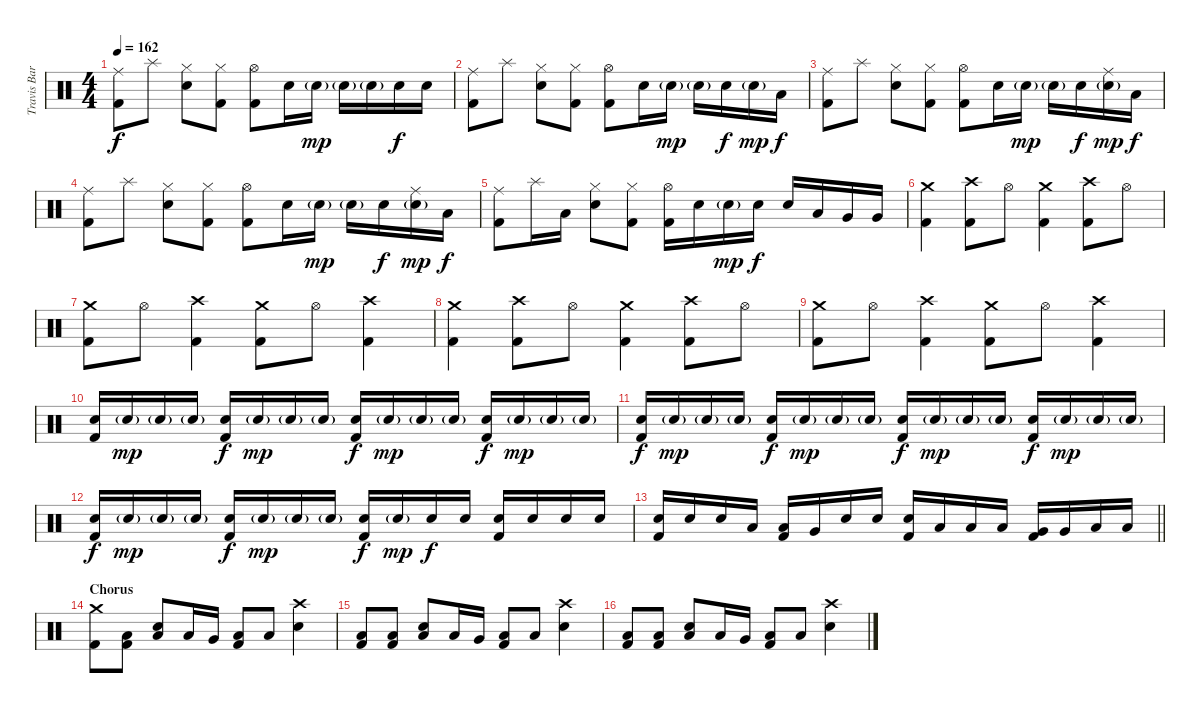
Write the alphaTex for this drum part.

\track ("Travis Barker - Drums" "Travis Bar") {instrument percussion}
\staff {score}
\articulation defaults
\ts (4 4)
\tempo 162
\clef neutral
\ks c
("Ride (middle)" "Kick (hit) 2").8{dy f} "Splash (hit)".8 ("Hi-Hat (closed)" "Electric Snare (hit)").8 ("Hi-Hat (closed)" "Kick (hit) 2").8 ("Hi-Hat (open)" "Kick (hit) 2").8 "Electric Snare (hit)".16 "Electric Snare (hit)"{g}.16{dy mp} "Electric Snare (hit)"{g}.16 "Electric Snare (hit)"{g}.16 "Electric Snare (hit)".16{dy f} "Electric Snare (hit)".16 |
("Ride (middle)" "Kick (hit) 2").8 "Splash (hit)".8 ("Hi-Hat (closed)" "Electric Snare (hit)").8 ("Hi-Hat (closed)" "Kick (hit) 2").8 ("Hi-Hat (open)" "Kick (hit) 2").8 "Electric Snare (hit)".16 "Electric Snare (hit)"{g}.16{dy mp} "Electric Snare (hit)"{g}.16 "Electric Snare (hit)".16{dy f} "Electric Snare (hit)"{g}.16{dy mp} "Low Tom (hit)".16{dy f} |
("Ride (middle)" "Kick (hit) 2").8 "Splash (hit)".8 ("Hi-Hat (closed)" "Electric Snare (hit)").8 ("Hi-Hat (closed)" "Kick (hit) 2").8 ("Hi-Hat (open)" "Kick (hit) 2").8 "Electric Snare (hit)".16 "Electric Snare (hit)"{g}.16{dy mp} "Electric Snare (hit)"{g}.16 "Electric Snare (hit)".16{dy f} ("Ride (middle)" "Electric Snare (hit)"{g}).16{dy mp} "Low Tom (hit)".16{dy f} |
("Ride (middle)" "Kick (hit) 2").8 "Splash (hit)".8 ("Hi-Hat (closed)" "Electric Snare (hit)").8 ("Hi-Hat (closed)" "Kick (hit) 2").8 ("Hi-Hat (open)" "Kick (hit) 2").8 "Electric Snare (hit)".16 "Electric Snare (hit)"{g}.16{dy mp} "Electric Snare (hit)"{g}.16 "Electric Snare (hit)".16{dy f} ("Ride (middle)" "Electric Snare (hit)"{g}).16{dy mp} "Low Tom (hit)".16{dy f} |
("Ride (middle)" "Kick (hit) 2").8 "Splash (hit)".16 "Low Tom (hit)".16 ("Hi-Hat (closed)" "Electric Snare (hit)").8 ("Hi-Hat (closed)" "Kick (hit) 2").8 ("Hi-Hat (open)" "Kick (hit) 2").16 "Electric Snare (hit)".16 "Electric Snare (hit)"{g}.16{dy mp} "Electric Snare (hit)".16{dy f} "Electric Snare (hit)".16 "Low Tom (hit)".16 "Very Low Tom (hit)".16 "Very Low Tom (hit)".16 |
("Crash medium (hit)" "Kick (hit) 2").4{volume 8} ("Crash high (hit)" "Kick (hit) 2").8{volume 10} "Hi-Hat (open)".8 ("Crash medium (hit)" "Kick (hit) 2").4 ("Crash high (hit)" "Kick (hit) 2").8 "Hi-Hat (open)".8 |
("Crash medium (hit)" "Kick (hit) 2").8 "Hi-Hat (open)".8 ("Crash high (hit)" "Kick (hit) 2").4 ("Crash medium (hit)" "Kick (hit) 2").8 "Hi-Hat (open)".8 ("Crash high (hit)" "Kick (hit) 2").4 |
("Crash medium (hit)" "Kick (hit) 2").4 ("Crash high (hit)" "Kick (hit) 2").8 "Hi-Hat (open)".8 ("Crash medium (hit)" "Kick (hit) 2").4 ("Crash high (hit)" "Kick (hit) 2").8 "Hi-Hat (open)".8 |
("Crash medium (hit)" "Kick (hit) 2").8 "Hi-Hat (open)".8 ("Crash high (hit)" "Kick (hit) 2").4 ("Crash medium (hit)" "Kick (hit) 2").8 "Hi-Hat (open)".8 ("Crash high (hit)" "Kick (hit) 2").4 |
("Electric Snare (hit)" "Kick (hit) 2").16{volume 12} "Electric Snare (hit)"{g}.16{dy mp} "Electric Snare (hit)"{g}.16 "Electric Snare (hit)"{g}.16 ("Electric Snare (hit)" "Kick (hit) 2").16{dy f} "Electric Snare (hit)"{g}.16{dy mp} "Electric Snare (hit)"{g}.16 "Electric Snare (hit)"{g}.16 ("Electric Snare (hit)" "Kick (hit) 2").16{dy f} "Electric Snare (hit)"{g}.16{dy mp} "Electric Snare (hit)"{g}.16 "Electric Snare (hit)"{g}.16 ("Electric Snare (hit)" "Kick (hit) 2").16{dy f} "Electric Snare (hit)"{g}.16{dy mp} "Electric Snare (hit)"{g}.16 "Electric Snare (hit)"{g}.16 |
("Electric Snare (hit)" "Kick (hit) 2").16{dy f} "Electric Snare (hit)"{g}.16{dy mp} "Electric Snare (hit)"{g}.16 "Electric Snare (hit)"{g}.16 ("Electric Snare (hit)" "Kick (hit) 2").16{dy f} "Electric Snare (hit)"{g}.16{dy mp} "Electric Snare (hit)"{g}.16 "Electric Snare (hit)"{g}.16 ("Electric Snare (hit)" "Kick (hit) 2").16{dy f} "Electric Snare (hit)"{g}.16{dy mp} "Electric Snare (hit)"{g}.16 "Electric Snare (hit)"{g}.16 ("Electric Snare (hit)" "Kick (hit) 2").16{dy f} "Electric Snare (hit)"{g}.16{dy mp} "Electric Snare (hit)"{g}.16 "Electric Snare (hit)"{g}.16 |
("Electric Snare (hit)" "Kick (hit) 2").16{dy f} "Electric Snare (hit)"{g}.16{dy mp} "Electric Snare (hit)"{g}.16 "Electric Snare (hit)"{g}.16 ("Electric Snare (hit)" "Kick (hit) 2").16{dy f} "Electric Snare (hit)"{g}.16{dy mp} "Electric Snare (hit)"{g}.16 "Electric Snare (hit)"{g}.16 ("Electric Snare (hit)" "Kick (hit) 2").16{dy f} "Electric Snare (hit)"{g}.16{dy mp} "Electric Snare (hit)".16{dy f} "Electric Snare (hit)".16 ("Electric Snare (hit)" "Kick (hit) 2").16 "Electric Snare (hit)".16 "Electric Snare (hit)".16 "Electric Snare (hit)".16 |
\barLineRight lightlight
("Electric Snare (hit)" "Kick (hit) 2").16 "Electric Snare (hit)".16 "Electric Snare (hit)".16 "Low Tom (hit)".16 ("Low Tom (hit)" "Kick (hit) 2").16 "Very Low Tom (hit)".16 "Electric Snare (hit)".16 "Electric Snare (hit)".16 ("Electric Snare (hit)" "Kick (hit) 2").16 "Low Tom (hit)".16 "Low Tom (hit)".16 "Low Tom (hit)".16 ("Very Low Tom (hit)" "Kick (hit) 2").16 "Very Low Tom (hit)".16 "Low Floor Tom (hit)".16 "Low Floor Tom (hit)".16 |
\section ("" "Chorus")
("Crash medium (hit)" "Kick (hit) 2").8 ("Low Floor Tom (hit)" "Kick (hit) 2").8 ("Low Floor Tom (hit)" "Electric Snare (hit)").8 "Low Tom (hit)".16 "Very Low Tom (hit)".16 ("Low Floor Tom (hit)" "Kick (hit) 2").8 "Low Floor Tom (hit)".8 ("Crash high (hit)" "Electric Snare (hit)").4 |
("Low Floor Tom (hit)" "Kick (hit) 2").8 ("Low Floor Tom (hit)" "Kick (hit) 2").8 ("Low Floor Tom (hit)" "Electric Snare (hit)").8 "Low Tom (hit)".16 "Very Low Tom (hit)".16 ("Low Floor Tom (hit)" "Kick (hit) 2").8 "Low Floor Tom (hit)".8 ("Crash high (hit)" "Electric Snare (hit)").4 |
("Low Floor Tom (hit)" "Kick (hit) 2").8 ("Low Floor Tom (hit)" "Kick (hit) 2").8 ("Low Floor Tom (hit)" "Electric Snare (hit)").8 "Low Tom (hit)".16 "Very Low Tom (hit)".16 ("Low Floor Tom (hit)" "Kick (hit) 2").8 "Low Floor Tom (hit)".8 ("Crash high (hit)" "Electric Snare (hit)").4
